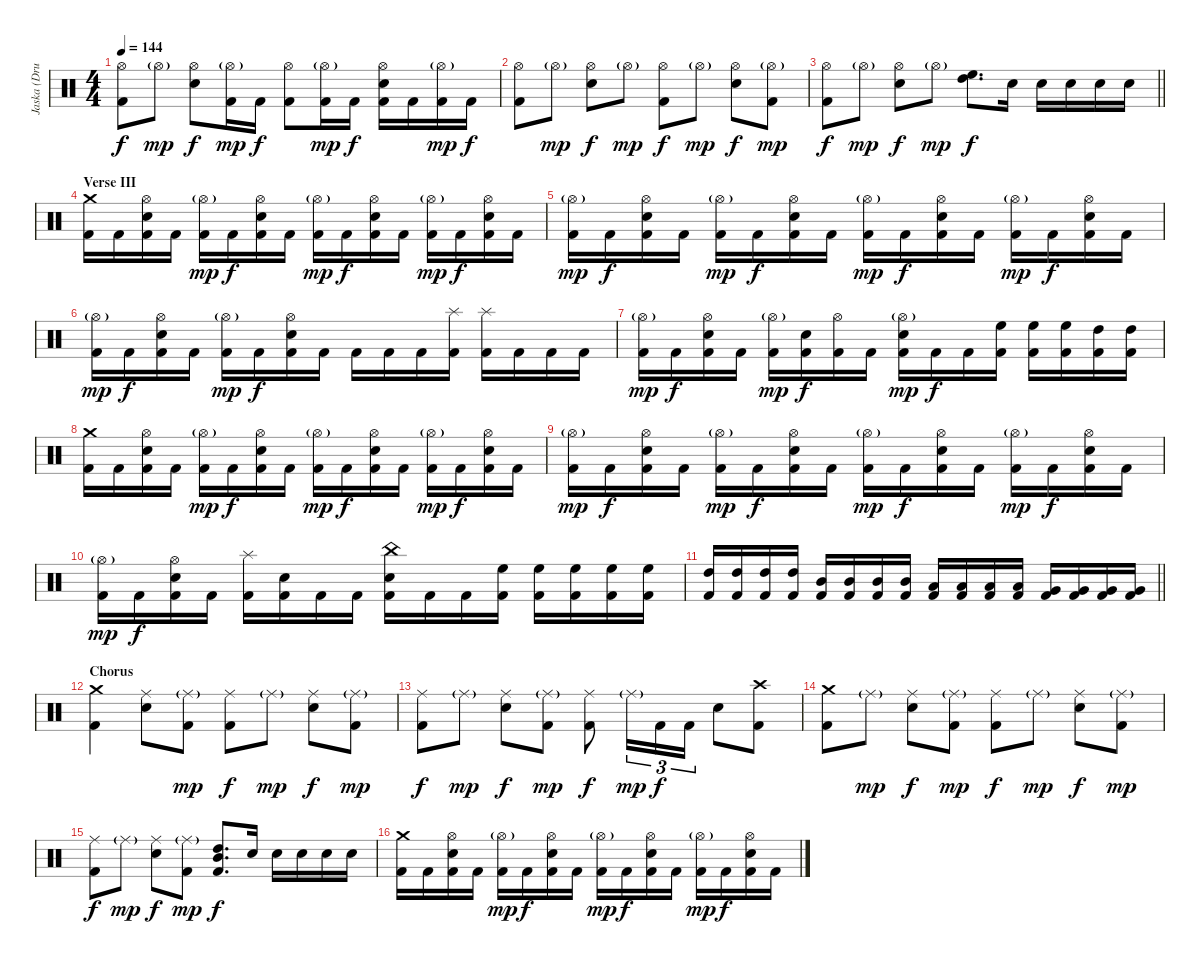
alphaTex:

\track ("Jaska (Drums)" "Jaska (Dru") {instrument percussion}
\staff {score}
\articulation defaults
\ts (4 4)
\tempo 144
\clef neutral
\ks c
("Hi-Hat (open)" "Kick (hit) 2").8{dy f} "Hi-Hat (open)"{g}.8{dy mp} ("Hi-Hat (open)" "Electric Snare (hit)").8{dy f} ("Hi-Hat (open)"{g} "Kick (hit) 2").16{dy mp} "Kick (hit) 2".16{dy f} ("Hi-Hat (open)" "Kick (hit) 2").8 ("Hi-Hat (open)"{g} "Kick (hit) 2").16{dy mp} "Kick (hit) 2".16{dy f} ("Hi-Hat (open)" "Electric Snare (hit)" "Kick (hit) 2").16 "Kick (hit) 2".16 ("Hi-Hat (open)"{g} "Kick (hit) 2").16{dy mp} "Kick (hit) 2".16{dy f} |
("Hi-Hat (open)" "Kick (hit) 2").8 "Hi-Hat (open)"{g}.8{dy mp} ("Hi-Hat (open)" "Electric Snare (hit)").8{dy f} "Hi-Hat (open)"{g}.8{dy mp} ("Hi-Hat (open)" "Kick (hit) 2").8{dy f} "Hi-Hat (open)"{g}.8{dy mp} ("Hi-Hat (open)" "Electric Snare (hit)").8{dy f} ("Hi-Hat (open)"{g} "Kick (hit) 2").8{dy mp} |
\barLineRight lightlight
("Hi-Hat (open)" "Kick (hit) 2").8{dy f} "Hi-Hat (open)"{g}.8{dy mp} ("Hi-Hat (open)" "Electric Snare (hit)").8{dy f} "Hi-Hat (open)"{g}.8{dy mp} ("High Floor Tom (hit)" "High Tom (hit)").8{d dy f} "Electric Snare (hit)".16 "Electric Snare (hit)".16 "Electric Snare (hit)".16 "Electric Snare (hit)".16 "Electric Snare (hit)".16 |
\section ("" "Verse III")
("Crash medium (hit)" "Kick (hit) 2").16{volume 14 balance 8} "Kick (hit) 2".16 ("Hi-Hat (open)" "Electric Snare (hit)" "Kick (hit) 2").16 "Kick (hit) 2".16 ("Hi-Hat (open)"{g} "Kick (hit) 2").16{dy mp} "Kick (hit) 2".16{dy f} ("Hi-Hat (open)" "Electric Snare (hit)" "Kick (hit) 2").16 "Kick (hit) 2".16 ("Hi-Hat (open)"{g} "Kick (hit) 2").16{dy mp} "Kick (hit) 2".16{dy f} ("Hi-Hat (open)" "Electric Snare (hit)" "Kick (hit) 2").16 "Kick (hit) 2".16 ("Hi-Hat (open)"{g} "Kick (hit) 2").16{dy mp} "Kick (hit) 2".16{dy f} ("Hi-Hat (open)" "Electric Snare (hit)" "Kick (hit) 2").16 "Kick (hit) 2".16 |
("Hi-Hat (open)"{g} "Kick (hit) 2").16{dy mp} "Kick (hit) 2".16{dy f} ("Hi-Hat (open)" "Electric Snare (hit)" "Kick (hit) 2").16 "Kick (hit) 2".16 ("Hi-Hat (open)"{g} "Kick (hit) 2").16{dy mp} "Kick (hit) 2".16{dy f} ("Hi-Hat (open)" "Electric Snare (hit)" "Kick (hit) 2").16 "Kick (hit) 2".16 ("Hi-Hat (open)"{g} "Kick (hit) 2").16{dy mp} "Kick (hit) 2".16{dy f} ("Hi-Hat (open)" "Electric Snare (hit)" "Kick (hit) 2").16 "Kick (hit) 2".16 ("Hi-Hat (open)"{g} "Kick (hit) 2").16{dy mp} "Kick (hit) 2".16{dy f} ("Hi-Hat (open)" "Electric Snare (hit)" "Kick (hit) 2").16 "Kick (hit) 2".16 |
("Hi-Hat (open)"{g} "Kick (hit) 2").16{dy mp} "Kick (hit) 2".16{dy f} ("Hi-Hat (open)" "Electric Snare (hit)" "Kick (hit) 2").16 "Kick (hit) 2".16 ("Hi-Hat (open)"{g} "Kick (hit) 2").16{dy mp} "Kick (hit) 2".16{dy f} ("Hi-Hat (open)" "Electric Snare (hit)" "Kick (hit) 2").16 "Kick (hit) 2".16 "Kick (hit) 2".16 "Kick (hit) 2".16 "Kick (hit) 2".16 ("Splash (hit)" "Kick (hit) 2").16 ("Splash (hit)" "Kick (hit) 2").16 "Kick (hit) 2".16 "Kick (hit) 2".16 "Kick (hit) 2".16 |
("Hi-Hat (open)"{g} "Kick (hit) 2").16{dy mp} "Kick (hit) 2".16{dy f} ("Hi-Hat (open)" "Electric Snare (hit)" "Kick (hit) 2").16 "Kick (hit) 2".16 ("Hi-Hat (open)"{g} "Kick (hit) 2").16{dy mp} ("Electric Snare (hit)" "Kick (hit) 2").16{dy f} ("Hi-Hat (open)" "Kick (hit) 2").16 "Kick (hit) 2".16 ("Hi-Hat (open)"{g} "Electric Snare (hit)" "Kick (hit) 2").16{dy mp} "Kick (hit) 2".16{dy f} "Kick (hit) 2".16 ("High Floor Tom (hit)" "Kick (hit) 2").16 ("High Floor Tom (hit)" "Kick (hit) 2").16 ("High Floor Tom (hit)" "Kick (hit) 2").16 ("High Tom (hit)" "Kick (hit) 2").16 ("High Tom (hit)" "Kick (hit) 2").16 |
("Crash medium (hit)" "Kick (hit) 2").16 "Kick (hit) 2".16 ("Hi-Hat (open)" "Electric Snare (hit)" "Kick (hit) 2").16 "Kick (hit) 2".16 ("Hi-Hat (open)"{g} "Kick (hit) 2").16{dy mp} "Kick (hit) 2".16{dy f} ("Hi-Hat (open)" "Electric Snare (hit)" "Kick (hit) 2").16 "Kick (hit) 2".16 ("Hi-Hat (open)"{g} "Kick (hit) 2").16{dy mp} "Kick (hit) 2".16{dy f} ("Hi-Hat (open)" "Electric Snare (hit)" "Kick (hit) 2").16 "Kick (hit) 2".16 ("Hi-Hat (open)"{g} "Kick (hit) 2").16{dy mp} "Kick (hit) 2".16{dy f} ("Hi-Hat (open)" "Electric Snare (hit)" "Kick (hit) 2").16 "Kick (hit) 2".16 |
("Hi-Hat (open)"{g} "Kick (hit) 2").16{dy mp} "Kick (hit) 2".16{dy f} ("Hi-Hat (open)" "Electric Snare (hit)" "Kick (hit) 2").16 "Kick (hit) 2".16 ("Hi-Hat (open)"{g} "Kick (hit) 2").16{dy mp} "Kick (hit) 2".16{dy f} ("Hi-Hat (open)" "Electric Snare (hit)" "Kick (hit) 2").16 "Kick (hit) 2".16 ("Hi-Hat (open)"{g} "Kick (hit) 2").16{dy mp} "Kick (hit) 2".16{dy f} ("Hi-Hat (open)" "Electric Snare (hit)" "Kick (hit) 2").16 "Kick (hit) 2".16 ("Hi-Hat (open)"{g} "Kick (hit) 2").16{dy mp} "Kick (hit) 2".16{dy f} ("Hi-Hat (open)" "Electric Snare (hit)" "Kick (hit) 2").16 "Kick (hit) 2".16 |
("Hi-Hat (open)"{g} "Kick (hit) 2").16{dy mp} "Kick (hit) 2".16{dy f} ("Hi-Hat (open)" "Electric Snare (hit)" "Kick (hit) 2").16 "Kick (hit) 2".16 ("Splash (hit)" "Kick (hit) 2").16 ("Electric Snare (hit)" "Kick (hit) 2").16 "Kick (hit) 2".16 "Kick (hit) 2".16 ("China (hit)" "Electric Snare (hit)" "Kick (hit) 2").16 "Kick (hit) 2".16 "Kick (hit) 2".16 ("High Floor Tom (hit)" "Kick (hit) 2").16 ("High Floor Tom (hit)" "Kick (hit) 2").16 ("High Floor Tom (hit)" "Kick (hit) 2").16 ("High Floor Tom (hit)" "Kick (hit) 2").16 ("High Floor Tom (hit)" "Kick (hit) 2").16 |
\barLineRight lightlight
("High Tom (hit)" "Kick (hit) 2").16 ("High Tom (hit)" "Kick (hit) 2").16 ("High Tom (hit)" "Kick (hit) 2").16 ("High Tom (hit)" "Kick (hit) 2").16 ("Mid Tom (hit)" "Kick (hit) 2").16 ("Mid Tom (hit)" "Kick (hit) 2").16 ("Mid Tom (hit)" "Kick (hit) 2").16 ("Mid Tom (hit)" "Kick (hit) 2").16 ("Low Tom (hit)" "Kick (hit) 2").16 ("Low Tom (hit)" "Kick (hit) 2").16 ("Low Tom (hit)" "Kick (hit) 2").16 ("Low Tom (hit)" "Kick (hit) 2").16 ("Very Low Tom (hit)" "Kick (hit) 2").16 ("Very Low Tom (hit)" "Kick (hit) 2").16 ("Very Low Tom (hit)" "Kick (hit) 2").16 ("Very Low Tom (hit)" "Kick (hit) 2").16 |
\section ("" "Chorus")
("Crash medium (hit)" "Kick (hit) 2").4 ("Ride (middle)" "Electric Snare (hit)").8 ("Ride (middle)"{g} "Kick (hit) 2").8{dy mp} ("Ride (middle)" "Kick (hit) 2").8{dy f} "Ride (middle)"{g}.8{dy mp} ("Ride (middle)" "Electric Snare (hit)").8{dy f} ("Ride (middle)"{g} "Kick (hit) 2").8{dy mp} |
("Ride (middle)" "Kick (hit) 2").8{dy f} "Ride (middle)"{g}.8{dy mp} ("Ride (middle)" "Electric Snare (hit)").8{dy f} ("Ride (middle)"{g} "Kick (hit) 2").8{dy mp} ("Ride (middle)" "Kick (hit) 2").8{dy f} "Ride (middle)"{g}.16{tu (3 2) dy mp} "Kick (hit) 2".16{tu (3 2) dy f} "Kick (hit) 2".16{tu (3 2)} "Electric Snare (hit)".8 ("Crash high (hit)" "Kick (hit) 2").8 |
("Crash medium (hit)" "Kick (hit) 2").8 "Ride (middle)"{g}.8{dy mp} ("Ride (middle)" "Electric Snare (hit)").8{dy f} ("Ride (middle)"{g} "Kick (hit) 2").8{dy mp} ("Ride (middle)" "Kick (hit) 2").8{dy f} "Ride (middle)"{g}.8{dy mp} ("Ride (middle)" "Electric Snare (hit)").8{dy f} ("Ride (middle)"{g} "Kick (hit) 2").8{dy mp} |
("Ride (middle)" "Kick (hit) 2").8{dy f} "Ride (middle)"{g}.8{dy mp} ("Ride (middle)" "Electric Snare (hit)").8{dy f} ("Ride (middle)"{g} "Kick (hit) 2").8{dy mp} ("High Tom (hit)" "Mid Tom (hit)" "Kick (hit) 2").8{d dy f} "Electric Snare (hit)".16 "Electric Snare (hit)".16 "Electric Snare (hit)".16 "Electric Snare (hit)".16 "Electric Snare (hit)".16 |
("Crash medium (hit)" "Kick (hit) 2").16 "Kick (hit) 2".16 ("Hi-Hat (open)" "Electric Snare (hit)" "Kick (hit) 2").16 "Kick (hit) 2".16 ("Hi-Hat (open)"{g} "Kick (hit) 2").16{dy mp} "Kick (hit) 2".16{dy f} ("Hi-Hat (open)" "Electric Snare (hit)" "Kick (hit) 2").16 "Kick (hit) 2".16 ("Hi-Hat (open)"{g} "Kick (hit) 2").16{dy mp} "Kick (hit) 2".16{dy f} ("Hi-Hat (open)" "Electric Snare (hit)" "Kick (hit) 2").16 "Kick (hit) 2".16 ("Hi-Hat (open)"{g} "Kick (hit) 2").16{dy mp} "Kick (hit) 2".16{dy f} ("Hi-Hat (open)" "Electric Snare (hit)" "Kick (hit) 2").16 "Kick (hit) 2".16
